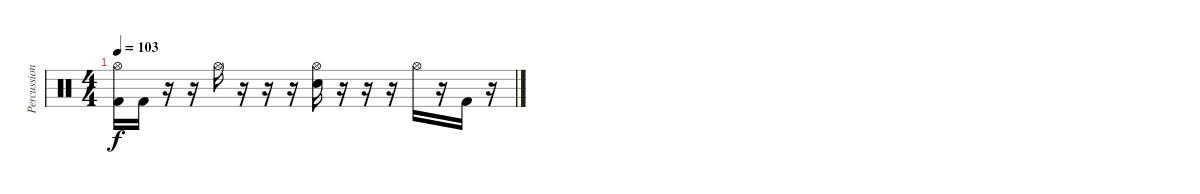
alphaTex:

\track ("Percussion" "Percussion") {instrument percussion}
\staff {score}
\articulation defaults
\ts (4 4)
\tempo 103
\clef neutral
\ks c
("Hi-Hat (open)" "Kick (hit) 2").16{dy f} "Kick (hit) 2".16 r.16 r.16 "Hi-Hat (open)".16 r.16 r.16 r.16 ("Hi-Hat (open)" "Electric Snare (hit)").16 r.16 r.16 r.16 "Hi-Hat (open)".16 r.16 "Kick (hit) 2".16 r.16
